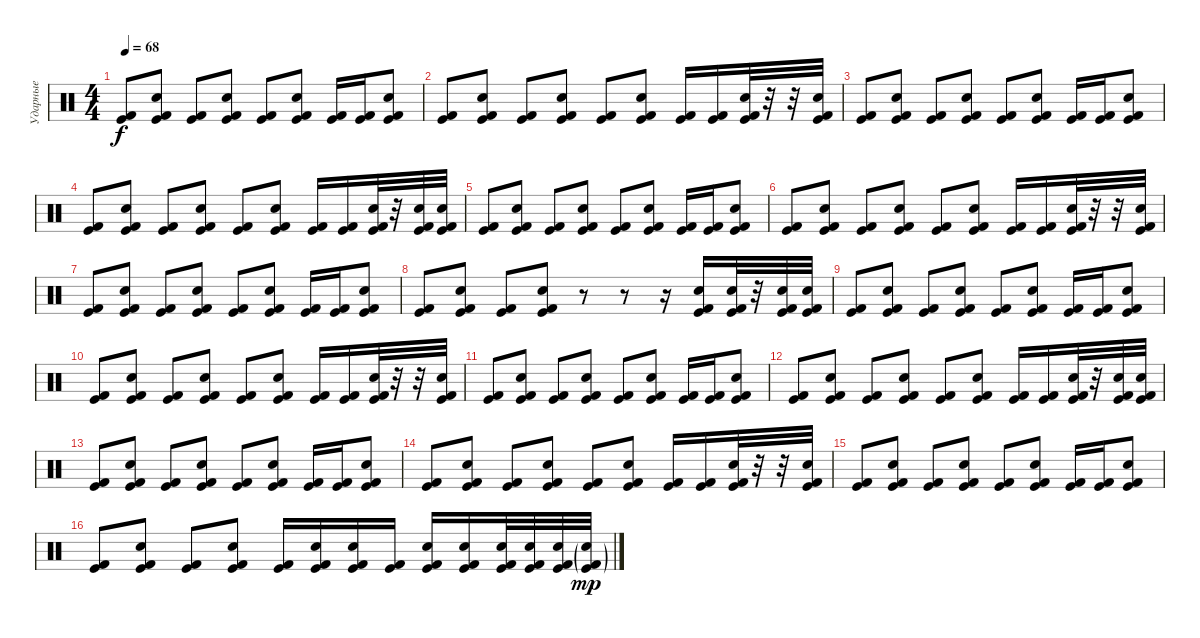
\track ("Ударные" "Ударные") {instrument percussion}
\staff {score}
\articulation defaults
\ts (4 4)
\tempo 68
\clef neutral
\ks c
("Kick (hit) 2" "Kick (hit)").8{dy f} ("Snare (hit) 2" "Kick (hit) 2" "Kick (hit)").8 ("Kick (hit) 2" "Kick (hit)").8 ("Snare (hit) 2" "Kick (hit) 2" "Kick (hit)").8 ("Kick (hit) 2" "Kick (hit)").8 ("Snare (hit) 2" "Kick (hit) 2" "Kick (hit)").8 ("Kick (hit) 2" "Kick (hit)").16 ("Kick (hit) 2" "Kick (hit)").16 ("Snare (hit) 2" "Kick (hit) 2" "Kick (hit)").8 |
("Kick (hit) 2" "Kick (hit)").8 ("Snare (hit) 2" "Kick (hit) 2" "Kick (hit)").8 ("Kick (hit) 2" "Kick (hit)").8 ("Snare (hit) 2" "Kick (hit) 2" "Kick (hit)").8 ("Kick (hit) 2" "Kick (hit)").8 ("Snare (hit) 2" "Kick (hit) 2" "Kick (hit)").8 ("Kick (hit) 2" "Kick (hit)").16 ("Kick (hit) 2" "Kick (hit)").16 ("Snare (hit) 2" "Kick (hit) 2" "Kick (hit)").32 r.32 r.32 ("Snare (hit) 2" "Kick (hit) 2" "Kick (hit)").32 |
("Kick (hit) 2" "Kick (hit)").8 ("Snare (hit) 2" "Kick (hit) 2" "Kick (hit)").8 ("Kick (hit) 2" "Kick (hit)").8 ("Snare (hit) 2" "Kick (hit) 2" "Kick (hit)").8 ("Kick (hit) 2" "Kick (hit)").8 ("Snare (hit) 2" "Kick (hit) 2" "Kick (hit)").8 ("Kick (hit) 2" "Kick (hit)").16 ("Kick (hit) 2" "Kick (hit)").16 ("Snare (hit) 2" "Kick (hit) 2" "Kick (hit)").8 |
("Kick (hit) 2" "Kick (hit)").8 ("Snare (hit) 2" "Kick (hit) 2" "Kick (hit)").8 ("Kick (hit) 2" "Kick (hit)").8 ("Snare (hit) 2" "Kick (hit) 2" "Kick (hit)").8 ("Kick (hit) 2" "Kick (hit)").8 ("Snare (hit) 2" "Kick (hit) 2" "Kick (hit)").8 ("Kick (hit) 2" "Kick (hit)").16 ("Kick (hit) 2" "Kick (hit)").16 ("Snare (hit) 2" "Kick (hit) 2" "Kick (hit)").32 r.32 ("Snare (hit) 2" "Kick (hit) 2" "Kick (hit)").32 ("Snare (hit) 2" "Kick (hit) 2" "Kick (hit)").32 |
("Kick (hit) 2" "Kick (hit)").8 ("Snare (hit) 2" "Kick (hit) 2" "Kick (hit)").8 ("Kick (hit) 2" "Kick (hit)").8 ("Snare (hit) 2" "Kick (hit) 2" "Kick (hit)").8 ("Kick (hit) 2" "Kick (hit)").8 ("Snare (hit) 2" "Kick (hit) 2" "Kick (hit)").8 ("Kick (hit) 2" "Kick (hit)").16 ("Kick (hit) 2" "Kick (hit)").16 ("Snare (hit) 2" "Kick (hit) 2" "Kick (hit)").8 |
("Kick (hit) 2" "Kick (hit)").8 ("Snare (hit) 2" "Kick (hit) 2" "Kick (hit)").8 ("Kick (hit) 2" "Kick (hit)").8 ("Snare (hit) 2" "Kick (hit) 2" "Kick (hit)").8 ("Kick (hit) 2" "Kick (hit)").8 ("Snare (hit) 2" "Kick (hit) 2" "Kick (hit)").8 ("Kick (hit) 2" "Kick (hit)").16 ("Kick (hit) 2" "Kick (hit)").16 ("Snare (hit) 2" "Kick (hit) 2" "Kick (hit)").32 r.32 r.32 ("Snare (hit) 2" "Kick (hit) 2" "Kick (hit)").32 |
("Kick (hit) 2" "Kick (hit)").8 ("Snare (hit) 2" "Kick (hit) 2" "Kick (hit)").8 ("Kick (hit) 2" "Kick (hit)").8 ("Snare (hit) 2" "Kick (hit) 2" "Kick (hit)").8 ("Kick (hit) 2" "Kick (hit)").8 ("Snare (hit) 2" "Kick (hit) 2" "Kick (hit)").8 ("Kick (hit) 2" "Kick (hit)").16 ("Kick (hit) 2" "Kick (hit)").16 ("Snare (hit) 2" "Kick (hit) 2" "Kick (hit)").8 |
("Kick (hit) 2" "Kick (hit)").8 ("Snare (hit) 2" "Kick (hit) 2" "Kick (hit)").8 ("Kick (hit) 2" "Kick (hit)").8 ("Snare (hit) 2" "Kick (hit) 2" "Kick (hit)").8 r.8 r.8 r.16 ("Snare (hit) 2" "Kick (hit) 2" "Kick (hit)").16 ("Snare (hit) 2" "Kick (hit) 2" "Kick (hit)").32 r.32 ("Snare (hit) 2" "Kick (hit) 2" "Kick (hit)").32 ("Snare (hit) 2" "Kick (hit) 2" "Kick (hit)").32 |
("Kick (hit) 2" "Kick (hit)").8 ("Snare (hit) 2" "Kick (hit) 2" "Kick (hit)").8 ("Kick (hit) 2" "Kick (hit)").8 ("Snare (hit) 2" "Kick (hit) 2" "Kick (hit)").8 ("Kick (hit) 2" "Kick (hit)").8 ("Snare (hit) 2" "Kick (hit) 2" "Kick (hit)").8 ("Kick (hit) 2" "Kick (hit)").16 ("Kick (hit) 2" "Kick (hit)").16 ("Snare (hit) 2" "Kick (hit) 2" "Kick (hit)").8 |
("Kick (hit) 2" "Kick (hit)").8 ("Snare (hit) 2" "Kick (hit) 2" "Kick (hit)").8 ("Kick (hit) 2" "Kick (hit)").8 ("Snare (hit) 2" "Kick (hit) 2" "Kick (hit)").8 ("Kick (hit) 2" "Kick (hit)").8 ("Snare (hit) 2" "Kick (hit) 2" "Kick (hit)").8 ("Kick (hit) 2" "Kick (hit)").16 ("Kick (hit) 2" "Kick (hit)").16 ("Snare (hit) 2" "Kick (hit) 2" "Kick (hit)").32 r.32 r.32 ("Snare (hit) 2" "Kick (hit) 2" "Kick (hit)").32 |
("Kick (hit) 2" "Kick (hit)").8 ("Snare (hit) 2" "Kick (hit) 2" "Kick (hit)").8 ("Kick (hit) 2" "Kick (hit)").8 ("Snare (hit) 2" "Kick (hit) 2" "Kick (hit)").8 ("Kick (hit) 2" "Kick (hit)").8 ("Snare (hit) 2" "Kick (hit) 2" "Kick (hit)").8 ("Kick (hit) 2" "Kick (hit)").16 ("Kick (hit) 2" "Kick (hit)").16 ("Snare (hit) 2" "Kick (hit) 2" "Kick (hit)").8 |
("Kick (hit) 2" "Kick (hit)").8 ("Snare (hit) 2" "Kick (hit) 2" "Kick (hit)").8 ("Kick (hit) 2" "Kick (hit)").8 ("Snare (hit) 2" "Kick (hit) 2" "Kick (hit)").8 ("Kick (hit) 2" "Kick (hit)").8 ("Snare (hit) 2" "Kick (hit) 2" "Kick (hit)").8 ("Kick (hit) 2" "Kick (hit)").16 ("Kick (hit) 2" "Kick (hit)").16 ("Snare (hit) 2" "Kick (hit) 2" "Kick (hit)").32 r.32 ("Snare (hit) 2" "Kick (hit) 2" "Kick (hit)").32 ("Snare (hit) 2" "Kick (hit) 2" "Kick (hit)").32 |
("Kick (hit) 2" "Kick (hit)").8 ("Snare (hit) 2" "Kick (hit) 2" "Kick (hit)").8 ("Kick (hit) 2" "Kick (hit)").8 ("Snare (hit) 2" "Kick (hit) 2" "Kick (hit)").8 ("Kick (hit) 2" "Kick (hit)").8 ("Snare (hit) 2" "Kick (hit) 2" "Kick (hit)").8 ("Kick (hit) 2" "Kick (hit)").16 ("Kick (hit) 2" "Kick (hit)").16 ("Snare (hit) 2" "Kick (hit) 2" "Kick (hit)").8 |
("Kick (hit) 2" "Kick (hit)").8 ("Snare (hit) 2" "Kick (hit) 2" "Kick (hit)").8 ("Kick (hit) 2" "Kick (hit)").8 ("Snare (hit) 2" "Kick (hit) 2" "Kick (hit)").8 ("Kick (hit) 2" "Kick (hit)").8 ("Snare (hit) 2" "Kick (hit) 2" "Kick (hit)").8 ("Kick (hit) 2" "Kick (hit)").16 ("Kick (hit) 2" "Kick (hit)").16 ("Snare (hit) 2" "Kick (hit) 2" "Kick (hit)").32 r.32 r.32 ("Snare (hit) 2" "Kick (hit) 2" "Kick (hit)").32 |
("Kick (hit) 2" "Kick (hit)").8 ("Snare (hit) 2" "Kick (hit) 2" "Kick (hit)").8 ("Kick (hit) 2" "Kick (hit)").8 ("Snare (hit) 2" "Kick (hit) 2" "Kick (hit)").8 ("Kick (hit) 2" "Kick (hit)").8 ("Snare (hit) 2" "Kick (hit) 2" "Kick (hit)").8 ("Kick (hit) 2" "Kick (hit)").16 ("Kick (hit) 2" "Kick (hit)").16 ("Snare (hit) 2" "Kick (hit) 2" "Kick (hit)").8 |
("Kick (hit) 2" "Kick (hit)").8 ("Snare (hit) 2" "Kick (hit) 2" "Kick (hit)").8 ("Kick (hit) 2" "Kick (hit)").8 ("Snare (hit) 2" "Kick (hit) 2" "Kick (hit)").8 ("Kick (hit) 2" "Kick (hit)").16 ("Snare (hit) 2" "Kick (hit) 2" "Kick (hit)").16 ("Snare (hit) 2" "Kick (hit) 2" "Kick (hit)").16 ("Kick (hit) 2" "Kick (hit)").16 ("Snare (hit) 2" "Kick (hit) 2" "Kick (hit)").16 ("Snare (hit) 2" "Kick (hit) 2" "Kick (hit)").16 ("Snare (hit) 2" "Kick (hit) 2" "Kick (hit)").32 ("Snare (hit) 2" "Kick (hit) 2" "Kick (hit)").32 ("Snare (hit) 2" "Kick (hit) 2" "Kick (hit)").32 ("Snare (hit) 2"{g} "Kick (hit) 2"{g} "Kick (hit)"{g}).32{dy mp}
